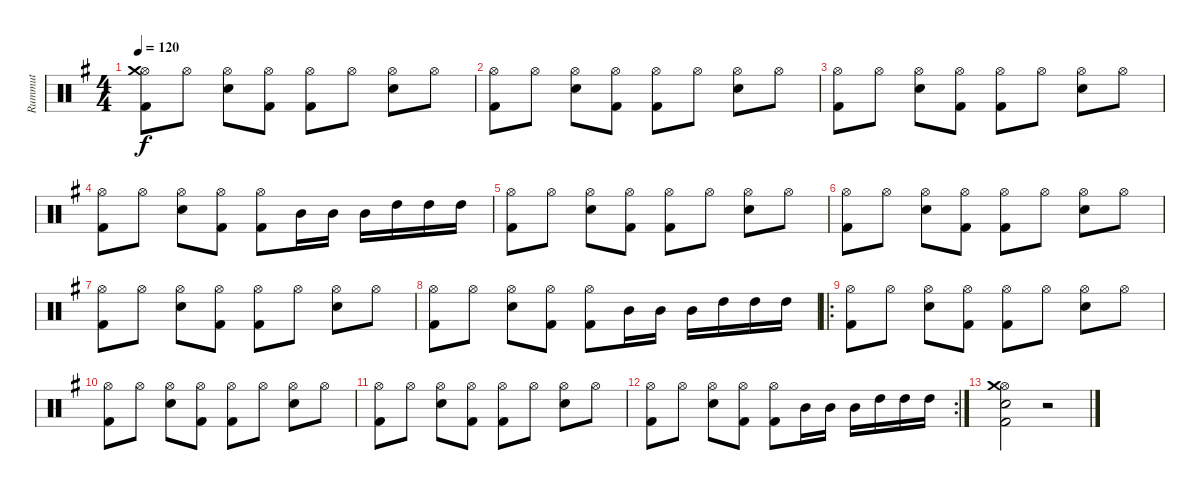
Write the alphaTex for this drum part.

\track ("Rummut" "Rummut") {instrument percussion}
\staff {score}
\articulation defaults
\ts (4 4)
\tempo 120
\clef neutral
\ks g
("Hi-Hat (open)" "Crash medium (hit)"{t} "Kick (hit) 2").8{dy f} "Hi-Hat (open)".8 ("Hi-Hat (open)" "Electric Snare (hit)").8 ("Hi-Hat (open)" "Kick (hit) 2").8 ("Hi-Hat (open)" "Kick (hit) 2").8 "Hi-Hat (open)".8 ("Hi-Hat (open)" "Electric Snare (hit)").8 "Hi-Hat (open)".8 |
("Hi-Hat (open)" "Kick (hit) 2").8 "Hi-Hat (open)".8 ("Hi-Hat (open)" "Electric Snare (hit)").8 ("Hi-Hat (open)" "Kick (hit) 2").8 ("Hi-Hat (open)" "Kick (hit) 2").8 "Hi-Hat (open)".8 ("Hi-Hat (open)" "Electric Snare (hit)").8 "Hi-Hat (open)".8 |
("Hi-Hat (open)" "Kick (hit) 2").8 "Hi-Hat (open)".8 ("Hi-Hat (open)" "Electric Snare (hit)").8 ("Hi-Hat (open)" "Kick (hit) 2").8 ("Hi-Hat (open)" "Kick (hit) 2").8 "Hi-Hat (open)".8 ("Hi-Hat (open)" "Electric Snare (hit)").8 "Hi-Hat (open)".8 |
("Hi-Hat (open)" "Kick (hit) 2").8 "Hi-Hat (open)".8 ("Hi-Hat (open)" "Electric Snare (hit)").8 ("Hi-Hat (open)" "Kick (hit) 2").8 ("Hi-Hat (open)" "Kick (hit) 2").8 "Mid Tom (hit)".16 "Mid Tom (hit)".16 "Mid Tom (hit)".16 "High Tom (hit)".16 "High Tom (hit)".16 "High Tom (hit)".16 |
("Hi-Hat (open)" "Kick (hit) 2").8 "Hi-Hat (open)".8 ("Hi-Hat (open)" "Electric Snare (hit)").8 ("Hi-Hat (open)" "Kick (hit) 2").8 ("Hi-Hat (open)" "Kick (hit) 2").8 "Hi-Hat (open)".8 ("Hi-Hat (open)" "Electric Snare (hit)").8 "Hi-Hat (open)".8 |
("Hi-Hat (open)" "Kick (hit) 2").8 "Hi-Hat (open)".8 ("Hi-Hat (open)" "Electric Snare (hit)").8 ("Hi-Hat (open)" "Kick (hit) 2").8 ("Hi-Hat (open)" "Kick (hit) 2").8 "Hi-Hat (open)".8 ("Hi-Hat (open)" "Electric Snare (hit)").8 "Hi-Hat (open)".8 |
("Hi-Hat (open)" "Kick (hit) 2").8 "Hi-Hat (open)".8 ("Hi-Hat (open)" "Electric Snare (hit)").8 ("Hi-Hat (open)" "Kick (hit) 2").8 ("Hi-Hat (open)" "Kick (hit) 2").8 "Hi-Hat (open)".8 ("Hi-Hat (open)" "Electric Snare (hit)").8 "Hi-Hat (open)".8 |
("Hi-Hat (open)" "Kick (hit) 2").8 "Hi-Hat (open)".8 ("Hi-Hat (open)" "Electric Snare (hit)").8 ("Hi-Hat (open)" "Kick (hit) 2").8 ("Hi-Hat (open)" "Kick (hit) 2").8 "Mid Tom (hit)".16 "Mid Tom (hit)".16 "Mid Tom (hit)".16 "High Tom (hit)".16 "High Tom (hit)".16 "High Tom (hit)".16 |
\ro
("Hi-Hat (open)" "Kick (hit) 2").8 "Hi-Hat (open)".8 ("Hi-Hat (open)" "Electric Snare (hit)").8 ("Hi-Hat (open)" "Kick (hit) 2").8 ("Hi-Hat (open)" "Kick (hit) 2").8 "Hi-Hat (open)".8 ("Hi-Hat (open)" "Electric Snare (hit)").8 "Hi-Hat (open)".8 |
("Hi-Hat (open)" "Kick (hit) 2").8 "Hi-Hat (open)".8 ("Hi-Hat (open)" "Electric Snare (hit)").8 ("Hi-Hat (open)" "Kick (hit) 2").8 ("Hi-Hat (open)" "Kick (hit) 2").8 "Hi-Hat (open)".8 ("Hi-Hat (open)" "Electric Snare (hit)").8 "Hi-Hat (open)".8 |
("Hi-Hat (open)" "Kick (hit) 2").8 "Hi-Hat (open)".8 ("Hi-Hat (open)" "Electric Snare (hit)").8 ("Hi-Hat (open)" "Kick (hit) 2").8 ("Hi-Hat (open)" "Kick (hit) 2").8 "Hi-Hat (open)".8 ("Hi-Hat (open)" "Electric Snare (hit)").8 "Hi-Hat (open)".8 |
\rc 2
("Hi-Hat (open)" "Kick (hit) 2").8 "Hi-Hat (open)".8 ("Hi-Hat (open)" "Electric Snare (hit)").8 ("Hi-Hat (open)" "Kick (hit) 2").8 ("Hi-Hat (open)" "Kick (hit) 2").8 "Mid Tom (hit)".16 "Mid Tom (hit)".16 "Mid Tom (hit)".16 "High Tom (hit)".16 "High Tom (hit)".16 "High Tom (hit)".16 |
("Hi-Hat (open)" "Kick (hit) 2" "Crash medium (hit)" "Snare (hit) 2").2 r.2
